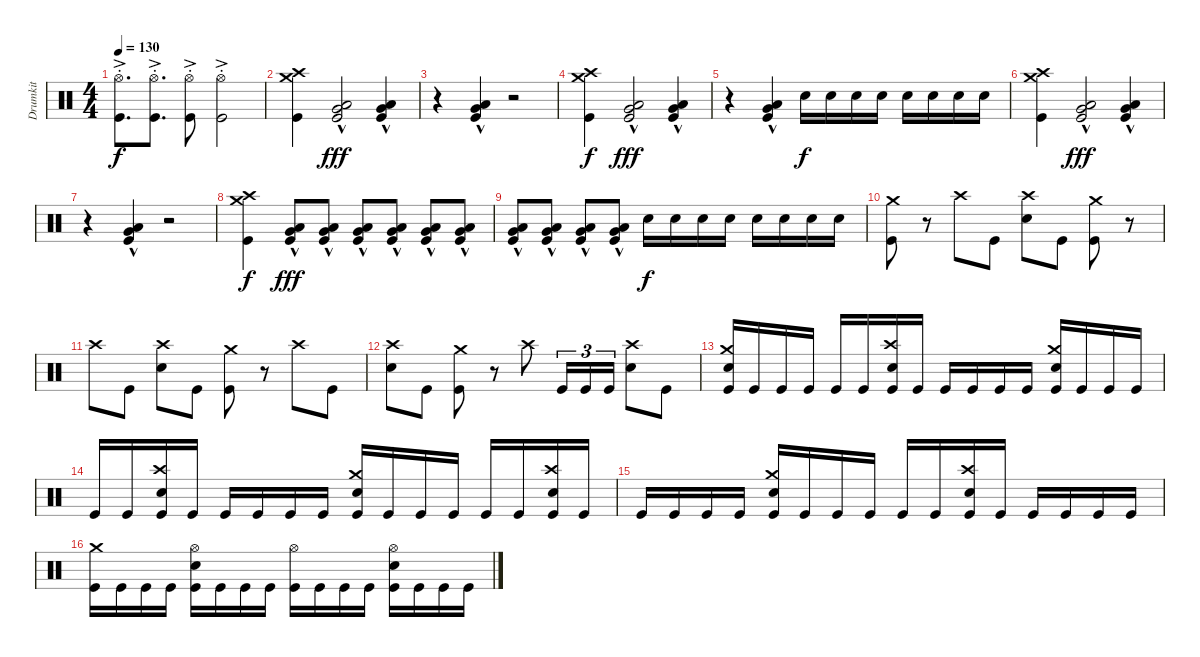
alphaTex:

\track ("Drumkit" "Drumkit") {instrument percussion}
\staff {score}
\articulation defaults
\ts (4 4)
\tempo 130
\clef neutral
\ks c
("Hi-Hat (open)"{ac st} "Kick (hit)"{ac st}).8{d dy f} ("Hi-Hat (open)"{ac st} "Kick (hit)"{ac st}).8{d} ("Hi-Hat (open)"{ac st} "Kick (hit)"{ac st}).8 ("Hi-Hat (open)"{ac st} "Kick (hit)"{ac st}).2 |
("Kick (hit)" "Crash high (hit)" "Crash medium (hit)").4 ("Very Low Tom (hit)"{hac} "Low Floor Tom (hit)"{hac} "Kick (hit)"{hac}).2{dy fff} ("Kick (hit)"{hac} "Low Floor Tom (hit)"{hac} "Very Low Tom (hit)"{hac}).4 |
r.4 ("Kick (hit)"{hac} "Very Low Tom (hit)"{hac} "Low Floor Tom (hit)"{hac}).4 r.2 |
("Kick (hit)" "Crash high (hit)" "Crash medium (hit)").4{dy f} ("Very Low Tom (hit)"{hac} "Low Floor Tom (hit)"{hac} "Kick (hit)"{hac}).2{dy fff} ("Kick (hit)"{hac} "Low Floor Tom (hit)"{hac} "Very Low Tom (hit)"{hac}).4 |
r.4 ("Kick (hit)"{hac} "Very Low Tom (hit)"{hac} "Low Floor Tom (hit)"{hac}).4 "Snare (hit) 2".16{dy f} "Snare (hit) 2".16 "Snare (hit) 2".16 "Snare (hit) 2".16 "Snare (hit) 2".16 "Snare (hit) 2".16 "Snare (hit) 2".16 "Snare (hit) 2".16 |
("Kick (hit)" "Crash high (hit)" "Crash medium (hit)").4 ("Very Low Tom (hit)"{hac} "Low Floor Tom (hit)"{hac} "Kick (hit)"{hac}).2{dy fff} ("Kick (hit)"{hac} "Low Floor Tom (hit)"{hac} "Very Low Tom (hit)"{hac}).4 |
r.4 ("Kick (hit)"{hac} "Very Low Tom (hit)"{hac} "Low Floor Tom (hit)"{hac}).4 r.2 |
("Kick (hit)" "Crash high (hit)" "Crash medium (hit)").4{dy f} ("Kick (hit)"{hac} "Low Floor Tom (hit)"{hac} "Very Low Tom (hit)"{hac}).8{dy fff} ("Kick (hit)"{hac} "Low Floor Tom (hit)"{hac} "Very Low Tom (hit)"{hac}).8 ("Kick (hit)"{hac} "Low Floor Tom (hit)"{hac} "Very Low Tom (hit)"{hac}).8 ("Kick (hit)"{hac} "Low Floor Tom (hit)"{hac} "Very Low Tom (hit)"{hac}).8 ("Kick (hit)"{hac} "Low Floor Tom (hit)"{hac} "Very Low Tom (hit)"{hac}).8 ("Kick (hit)"{hac} "Low Floor Tom (hit)"{hac} "Very Low Tom (hit)"{hac}).8 |
("Kick (hit)"{hac} "Low Floor Tom (hit)"{hac} "Very Low Tom (hit)"{hac}).8 ("Kick (hit)"{hac} "Low Floor Tom (hit)"{hac} "Very Low Tom (hit)"{hac}).8 ("Kick (hit)"{hac} "Low Floor Tom (hit)"{hac} "Very Low Tom (hit)"{hac}).8 ("Kick (hit)"{hac} "Low Floor Tom (hit)"{hac} "Very Low Tom (hit)"{hac}).8 "Snare (hit) 2".16{dy f} "Snare (hit) 2".16 "Snare (hit) 2".16 "Snare (hit) 2".16 "Snare (hit) 2".16 "Snare (hit) 2".16 "Snare (hit) 2".16 "Snare (hit) 2".16 |
("Kick (hit)" "Crash medium (hit)").8 r.8 "Crash high (hit)".8 "Kick (hit)".8 ("Crash high (hit)" "Snare (hit) 2").8 "Kick (hit)".8 ("Kick (hit)" "Crash medium (hit)").8 r.8 |
"Crash high (hit)".8 "Kick (hit)".8 ("Crash high (hit)" "Snare (hit) 2").8 "Kick (hit)".8 ("Kick (hit)" "Crash medium (hit)").8 r.8 "Crash high (hit)".8 "Kick (hit)".8 |
("Snare (hit) 2" "Crash high (hit)").8 "Kick (hit)".8 ("Kick (hit)" "Crash medium (hit)").8 r.8 "Crash high (hit)".8 "Kick (hit)".16{tu (3 2)} "Kick (hit)".16{tu (3 2)} "Kick (hit)".16{tu (3 2)} ("Snare (hit) 2" "Crash high (hit)").8 "Kick (hit)".8 |
("Kick (hit)" "Snare (hit) 2" "Crash medium (hit)").16 "Kick (hit)".16 "Kick (hit)".16 "Kick (hit)".16 "Kick (hit)".16 "Kick (hit)".16 ("Kick (hit)" "Snare (hit) 2" "Crash high (hit)").16 "Kick (hit)".16 "Kick (hit)".16 "Kick (hit)".16 "Kick (hit)".16 "Kick (hit)".16 ("Kick (hit)" "Snare (hit) 2" "Crash medium (hit)").16 "Kick (hit)".16 "Kick (hit)".16 "Kick (hit)".16 |
"Kick (hit)".16 "Kick (hit)".16 ("Kick (hit)" "Snare (hit) 2" "Crash high (hit)").16 "Kick (hit)".16 "Kick (hit)".16 "Kick (hit)".16 "Kick (hit)".16 "Kick (hit)".16 ("Kick (hit)" "Crash medium (hit)" "Snare (hit) 2").16 "Kick (hit)".16 "Kick (hit)".16 "Kick (hit)".16 "Kick (hit)".16 "Kick (hit)".16 ("Kick (hit)" "Crash high (hit)" "Snare (hit) 2").16 "Kick (hit)".16 |
"Kick (hit)".16 "Kick (hit)".16 "Kick (hit)".16 "Kick (hit)".16 ("Kick (hit)" "Snare (hit) 2" "Crash medium (hit)").16 "Kick (hit)".16 "Kick (hit)".16 "Kick (hit)".16 "Kick (hit)".16 "Kick (hit)".16 ("Kick (hit)" "Snare (hit) 2" "Crash high (hit)").16 "Kick (hit)".16 "Kick (hit)".16 "Kick (hit)".16 "Kick (hit)".16 "Kick (hit)".16 |
("Kick (hit)" "Crash medium (hit)").16 "Kick (hit)".16 "Kick (hit)".16 "Kick (hit)".16 ("Kick (hit)" "Hi-Hat (open)" "Snare (hit) 2").16 "Kick (hit)".16 "Kick (hit)".16 "Kick (hit)".16 ("Kick (hit)" "Hi-Hat (open)").16 "Kick (hit)".16 "Kick (hit)".16 "Kick (hit)".16 ("Kick (hit)" "Hi-Hat (open)" "Snare (hit) 2").16 "Kick (hit)".16 "Kick (hit)".16 "Kick (hit)".16
